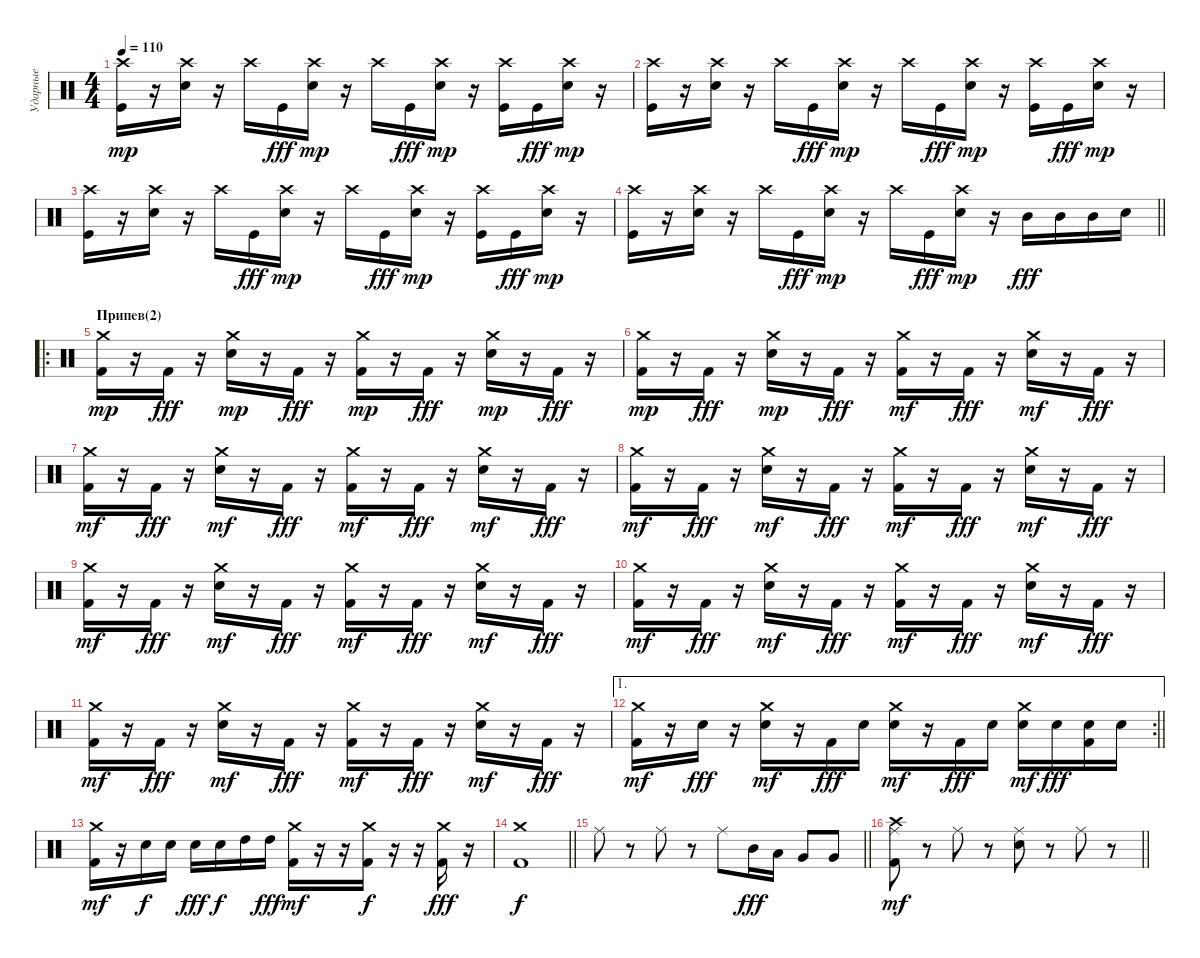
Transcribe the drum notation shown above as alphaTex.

\track ("Ударные" "Ударные") {instrument percussion}
\staff {score}
\articulation defaults
\ts (4 4)
\tempo 110
\clef neutral
\ks c
("Kick (hit)" "Crash high (hit)").16{dy mp} r.16 ("Electric Snare (hit)" "Crash high (hit)").16 r.16 "Crash high (hit)".16 "Kick (hit)".16{dy fff} ("Electric Snare (hit)" "Crash high (hit)").16{dy mp} r.16 "Crash high (hit)".16 "Kick (hit)".16{dy fff} ("Electric Snare (hit)" "Crash high (hit)").16{dy mp} r.16 ("Kick (hit)" "Crash high (hit)").16 "Kick (hit)".16{dy fff} ("Electric Snare (hit)" "Crash high (hit)").16{dy mp} r.16 |
("Kick (hit)" "Crash high (hit)").16 r.16 ("Electric Snare (hit)" "Crash high (hit)").16 r.16 "Crash high (hit)".16 "Kick (hit)".16{dy fff} ("Electric Snare (hit)" "Crash high (hit)").16{dy mp} r.16 "Crash high (hit)".16 "Kick (hit)".16{dy fff} ("Electric Snare (hit)" "Crash high (hit)").16{dy mp} r.16 ("Kick (hit)" "Crash high (hit)").16 "Kick (hit)".16{dy fff} ("Electric Snare (hit)" "Crash high (hit)").16{dy mp} r.16 |
("Kick (hit)" "Crash high (hit)").16 r.16 ("Electric Snare (hit)" "Crash high (hit)").16 r.16 "Crash high (hit)".16 "Kick (hit)".16{dy fff} ("Electric Snare (hit)" "Crash high (hit)").16{dy mp} r.16 "Crash high (hit)".16 "Kick (hit)".16{dy fff} ("Electric Snare (hit)" "Crash high (hit)").16{dy mp} r.16 ("Kick (hit)" "Crash high (hit)").16 "Kick (hit)".16{dy fff} ("Electric Snare (hit)" "Crash high (hit)").16{dy mp} r.16 |
\barLineRight lightlight
("Kick (hit)" "Crash high (hit)").16 r.16 ("Electric Snare (hit)" "Crash high (hit)").16 r.16 "Crash high (hit)".16 "Kick (hit)".16{dy fff} ("Electric Snare (hit)" "Crash high (hit)").16{dy mp} r.16 "Crash high (hit)".16 "Kick (hit)".16{dy fff} ("Electric Snare (hit)" "Crash high (hit)").16{dy mp} r.16 "Mid Tom (hit)".16{dy fff} "Mid Tom (hit)".16 "Mid Tom (hit)".16 "Electric Snare (hit)".16 |
\ro
\section ("" "Припев(2)")
("Kick (hit) 2" "Crash medium (hit)").16{dy mp} r.16 "Kick (hit) 2".16{dy fff} r.16 ("Electric Snare (hit)" "Crash medium (hit)").16{dy mp} r.16 "Kick (hit) 2".16{dy fff} r.16 ("Kick (hit) 2" "Crash medium (hit)").16{dy mp} r.16 "Kick (hit) 2".16{dy fff} r.16 ("Electric Snare (hit)" "Crash medium (hit)").16{dy mp} r.16 "Kick (hit) 2".16{dy fff} r.16 |
("Kick (hit) 2" "Crash medium (hit)").16{dy mp} r.16 "Kick (hit) 2".16{dy fff} r.16 ("Electric Snare (hit)" "Crash medium (hit)").16{dy mp} r.16 "Kick (hit) 2".16{dy fff} r.16 ("Kick (hit) 2" "Crash medium (hit)").16{dy mf} r.16 "Kick (hit) 2".16{dy fff} r.16 ("Electric Snare (hit)" "Crash medium (hit)").16{dy mf} r.16 "Kick (hit) 2".16{dy fff} r.16 |
("Kick (hit) 2" "Crash medium (hit)").16{dy mf} r.16 "Kick (hit) 2".16{dy fff} r.16 ("Electric Snare (hit)" "Crash medium (hit)").16{dy mf} r.16 "Kick (hit) 2".16{dy fff} r.16 ("Kick (hit) 2" "Crash medium (hit)").16{dy mf} r.16 "Kick (hit) 2".16{dy fff} r.16 ("Electric Snare (hit)" "Crash medium (hit)").16{dy mf} r.16 "Kick (hit) 2".16{dy fff} r.16 |
("Kick (hit) 2" "Crash medium (hit)").16{dy mf} r.16 "Kick (hit) 2".16{dy fff} r.16 ("Electric Snare (hit)" "Crash medium (hit)").16{dy mf} r.16 "Kick (hit) 2".16{dy fff} r.16 ("Kick (hit) 2" "Crash medium (hit)").16{dy mf} r.16 "Kick (hit) 2".16{dy fff} r.16 ("Electric Snare (hit)" "Crash medium (hit)").16{dy mf} r.16 "Kick (hit) 2".16{dy fff} r.16 |
("Kick (hit) 2" "Crash medium (hit)").16{dy mf} r.16 "Kick (hit) 2".16{dy fff} r.16 ("Electric Snare (hit)" "Crash medium (hit)").16{dy mf} r.16 "Kick (hit) 2".16{dy fff} r.16 ("Kick (hit) 2" "Crash medium (hit)").16{dy mf} r.16 "Kick (hit) 2".16{dy fff} r.16 ("Electric Snare (hit)" "Crash medium (hit)").16{dy mf} r.16 "Kick (hit) 2".16{dy fff} r.16 |
("Kick (hit) 2" "Crash medium (hit)").16{dy mf} r.16 "Kick (hit) 2".16{dy fff} r.16 ("Electric Snare (hit)" "Crash medium (hit)").16{dy mf} r.16 "Kick (hit) 2".16{dy fff} r.16 ("Kick (hit) 2" "Crash medium (hit)").16{dy mf} r.16 "Kick (hit) 2".16{dy fff} r.16 ("Electric Snare (hit)" "Crash medium (hit)").16{dy mf} r.16 "Kick (hit) 2".16{dy fff} r.16 |
("Kick (hit) 2" "Crash medium (hit)").16{dy mf} r.16 "Kick (hit) 2".16{dy fff} r.16 ("Electric Snare (hit)" "Crash medium (hit)").16{dy mf} r.16 "Kick (hit) 2".16{dy fff} r.16 ("Kick (hit) 2" "Crash medium (hit)").16{dy mf} r.16 "Kick (hit) 2".16{dy fff} r.16 ("Electric Snare (hit)" "Crash medium (hit)").16{dy mf} r.16 "Kick (hit) 2".16{dy fff} r.16 |
\ae 1
\rc 2
\barLineRight lightlight
("Kick (hit) 2" "Crash medium (hit)").16{dy mf} r.16 "Electric Snare (hit)".16{dy fff} r.16 ("Electric Snare (hit)" "Crash medium (hit)").16{dy mf} r.16 "Kick (hit) 2".16{dy fff} "Electric Snare (hit)".16 ("Electric Snare (hit)" "Crash medium (hit)").16{dy mf} r.16 "Kick (hit) 2".16{dy fff} "Electric Snare (hit)".16 ("Electric Snare (hit)" "Crash medium (hit)").16{dy mf} "Electric Snare (hit)".16{dy fff} ("Kick (hit) 2" "Electric Snare (hit)").16 "Electric Snare (hit)".16 |
\section ("" "")
("Kick (hit) 2" "Crash medium (hit)").16{dy mf} r.16 "Electric Snare (hit)".16{dy f} "Electric Snare (hit)".16 "Electric Snare (hit)".16{dy fff} "Electric Snare (hit)".16{dy f} "High Tom (hit)".16 "High Tom (hit)".16{dy fff} ("Kick (hit) 2" "Crash medium (hit)").16{dy mf} r.16 r.16 ("Kick (hit) 2" "Crash medium (hit)").16{dy f} r.16 r.16 ("Kick (hit) 2" "Crash medium (hit)").16{dy fff} r.16 |
\barLineRight lightlight
("Kick (hit) 2" "Crash medium (hit)").1{dy f} |
\barLineRight lightlight "Ride (middle)".8
r.8 "Ride (middle)".8 r.8 "Ride (middle)".8 "Mid Tom (hit)".16{dy fff} "Low Tom (hit)".16 "Very Low Tom (hit)".8 "Very Low Tom (hit)".8 |
\barLineRight lightlight
("Kick (hit) 2" "Crash high (hit)" "Ride (middle)").8{dy mf} r.8 "Ride (middle)".8 r.8 ("Electric Snare (hit)" "Ride (middle)").8 r.8 "Ride (middle)".8 r.8
